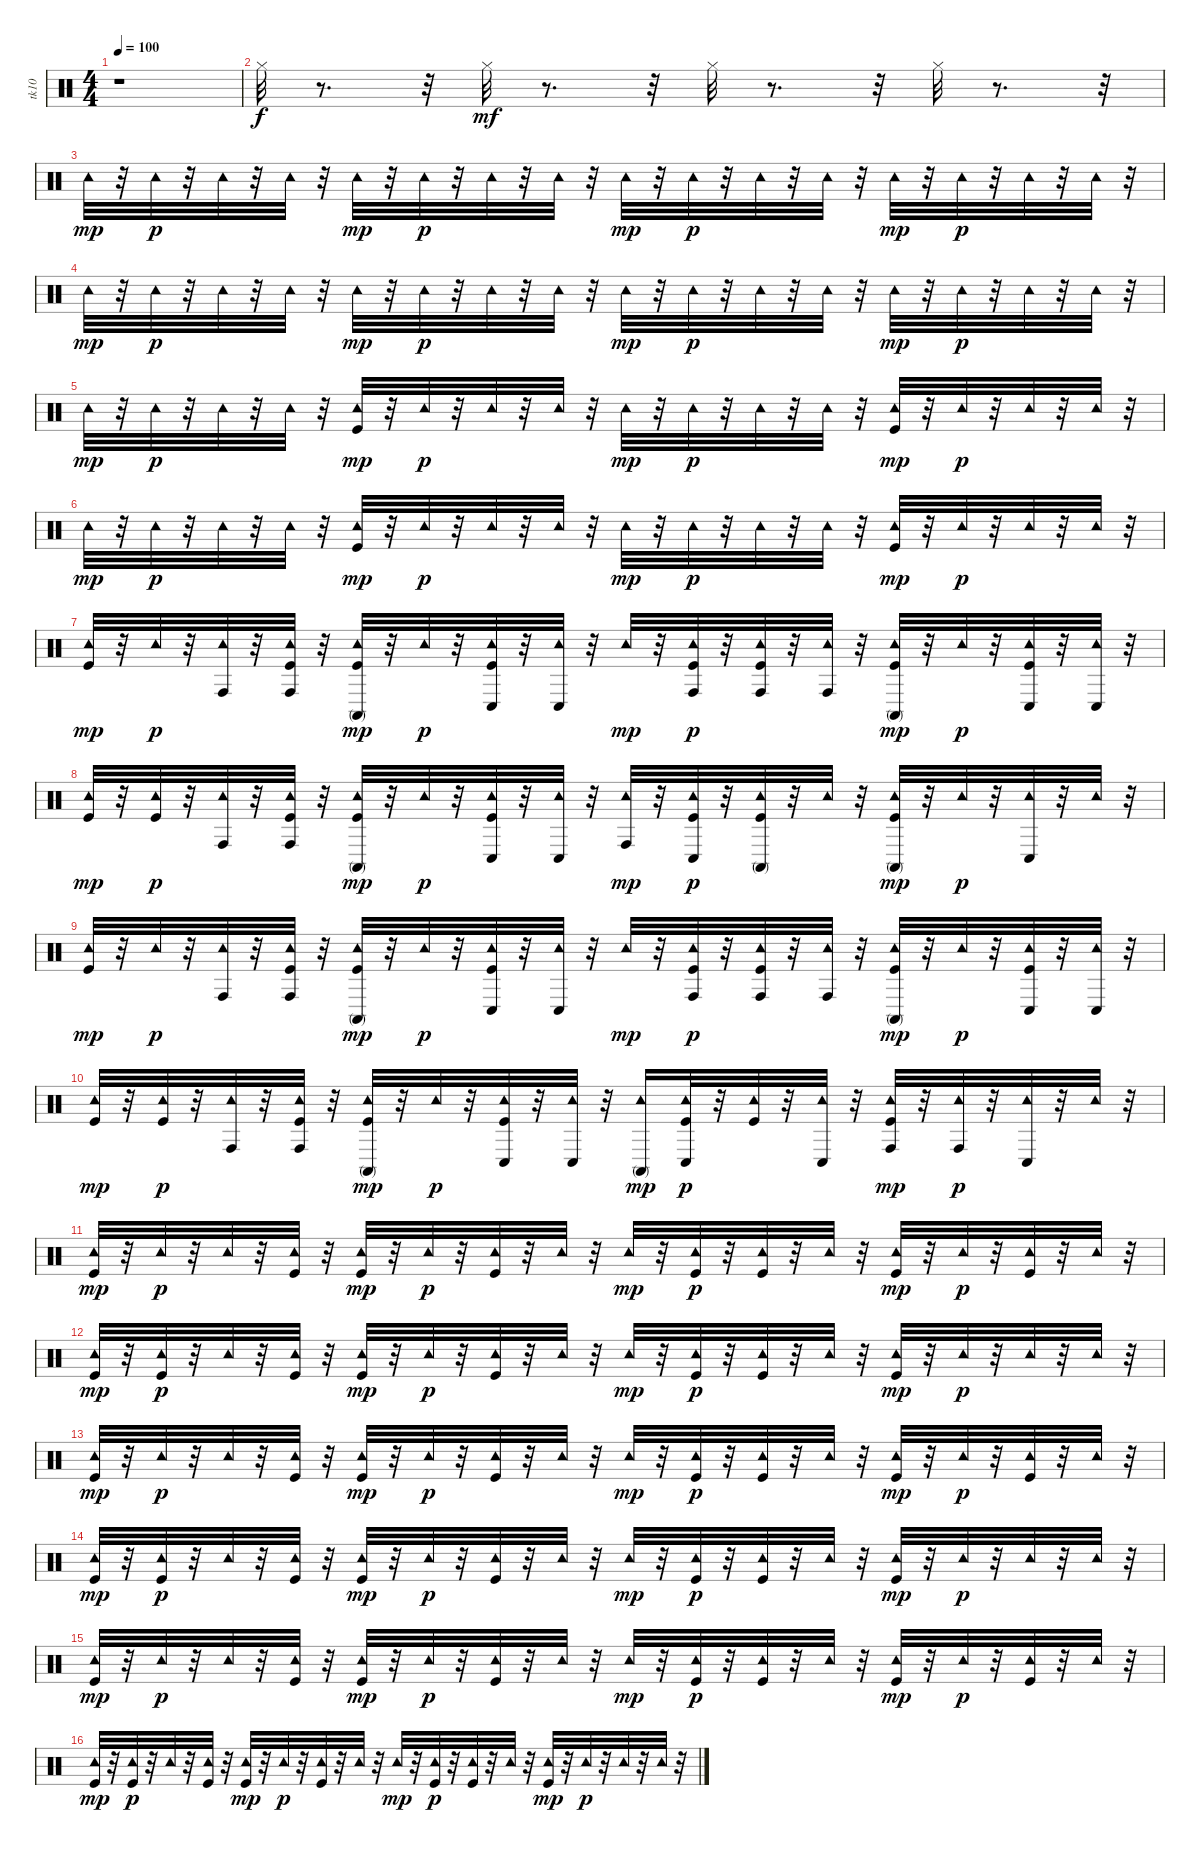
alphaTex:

\track ("tk10" "tk10") {instrument percussion}
\staff {score}
\articulation defaults
\ts (4 4)
\tempo 100
\clef neutral
\ks c
r.1{dy f} |
"Hi-Hat (closed)".32{volume 12} r.8{d} r.32 "Hi-Hat (closed)".32{dy mf} r.8{d} r.32 "Hi-Hat (closed)".32 r.8{d} r.32 "Hi-Hat (closed)".32 r.8{d} r.32 |
"Tambourine (hit)".32{dy mp} r.32 "Tambourine (hit)".32{dy p} r.32 "Tambourine (hit)".32 r.32 "Tambourine (hit)".32 r.32 "Tambourine (hit)".32{dy mp} r.32 "Tambourine (hit)".32{dy p} r.32 "Tambourine (hit)".32 r.32 "Tambourine (hit)".32 r.32 "Tambourine (hit)".32{dy mp} r.32 "Tambourine (hit)".32{dy p} r.32 "Tambourine (hit)".32 r.32 "Tambourine (hit)".32 r.32 "Tambourine (hit)".32{dy mp} r.32 "Tambourine (hit)".32{dy p} r.32 "Tambourine (hit)".32 r.32 "Tambourine (hit)".32 r.32 |
"Tambourine (hit)".32{dy mp} r.32 "Tambourine (hit)".32{dy p} r.32 "Tambourine (hit)".32 r.32 "Tambourine (hit)".32 r.32 "Tambourine (hit)".32{dy mp} r.32 "Tambourine (hit)".32{dy p} r.32 "Tambourine (hit)".32 r.32 "Tambourine (hit)".32 r.32 "Tambourine (hit)".32{dy mp} r.32 "Tambourine (hit)".32{dy p} r.32 "Tambourine (hit)".32 r.32 "Tambourine (hit)".32 r.32 "Tambourine (hit)".32{dy mp} r.32 "Tambourine (hit)".32{dy p} r.32 "Tambourine (hit)".32 r.32 "Tambourine (hit)".32 r.32 |
"Tambourine (hit)".32{dy mp} r.32 "Tambourine (hit)".32{dy p} r.32 "Tambourine (hit)".32 r.32 "Tambourine (hit)".32 r.32 ("Kick (hit)" "Tambourine (hit)").32{dy mp} r.32 "Tambourine (hit)".32{dy p} r.32 "Tambourine (hit)".32 r.32 "Tambourine (hit)".32 r.32 "Tambourine (hit)".32{dy mp} r.32 "Tambourine (hit)".32{dy p} r.32 "Tambourine (hit)".32 r.32 "Tambourine (hit)".32 r.32 ("Kick (hit)" "Tambourine (hit)").32{dy mp} r.32 "Tambourine (hit)".32{dy p} r.32 "Tambourine (hit)".32 r.32 "Tambourine (hit)".32 r.32 |
"Tambourine (hit)".32{dy mp} r.32 "Tambourine (hit)".32{dy p} r.32 "Tambourine (hit)".32 r.32 "Tambourine (hit)".32 r.32 ("Kick (hit)" "Tambourine (hit)").32{dy mp} r.32 "Tambourine (hit)".32{dy p} r.32 "Tambourine (hit)".32 r.32 "Tambourine (hit)".32 r.32 "Tambourine (hit)".32{dy mp} r.32 "Tambourine (hit)".32{dy p} r.32 "Tambourine (hit)".32 r.32 "Tambourine (hit)".32 r.32 ("Kick (hit)" "Tambourine (hit)").32{dy mp} r.32 "Tambourine (hit)".32{dy p} r.32 "Tambourine (hit)".32 r.32 "Tambourine (hit)".32 r.32 |
("Kick (hit)" "Tambourine (hit)").32{dy mp} r.32 "Tambourine (hit)".32{dy p} r.32 ("Conga high (hit)" "Tambourine (hit)").32 r.32 ("Kick (hit)" "Conga high (hit)" "Tambourine (hit)").32 r.32 ("Kick (hit)" "Conga high (mute)" "Tambourine (hit)").32{dy mp} r.32 "Tambourine (hit)".32{dy p} r.32 ("Kick (hit)" "Conga low (hit)" "Tambourine (hit)").32 r.32 ("Conga low (hit)" "Tambourine (hit)").32 r.32 "Tambourine (hit)".32{dy mp} r.32 ("Kick (hit)" "Conga high (hit)" "Tambourine (hit)").32{dy p} r.32 ("Kick (hit)" "Conga high (hit)" "Tambourine (hit)").32 r.32 ("Conga high (hit)" "Tambourine (hit)").32 r.32 ("Kick (hit)" "Conga high (mute)" "Tambourine (hit)").32{dy mp} r.32 "Tambourine (hit)".32{dy p} r.32 ("Kick (hit)" "Conga low (hit)" "Tambourine (hit)").32 r.32 ("Conga low (hit)" "Tambourine (hit)").32 r.32 |
("Kick (hit)" "Tambourine (hit)").32{dy mp} r.32 ("Kick (hit)" "Tambourine (hit)").32{dy p} r.32 ("Conga high (hit)" "Tambourine (hit)").32 r.32 ("Kick (hit)" "Conga high (hit)" "Tambourine (hit)").32 r.32 ("Kick (hit)" "Conga high (mute)" "Tambourine (hit)").32{dy mp} r.32 "Tambourine (hit)".32{dy p} r.32 ("Kick (hit)" "Conga low (hit)" "Tambourine (hit)").32 r.32 ("Conga low (hit)" "Tambourine (hit)").32 r.32 ("Conga high (hit)" "Tambourine (hit)").32{dy mp} r.32 ("Kick (hit)" "Conga low (hit)" "Tambourine (hit)").32{dy p} r.32 ("Kick (hit)" "Conga high (mute)" "Tambourine (hit)").32 r.32 "Tambourine (hit)".32 r.32 ("Kick (hit)" "Conga high (mute)" "Tambourine (hit)").32{dy mp} r.32 "Tambourine (hit)".32{dy p} r.32 ("Conga low (hit)" "Tambourine (hit)").32 r.32 "Tambourine (hit)".32 r.32 |
("Kick (hit)" "Tambourine (hit)").32{dy mp} r.32 "Tambourine (hit)".32{dy p} r.32 ("Conga high (hit)" "Tambourine (hit)").32 r.32 ("Kick (hit)" "Conga high (hit)" "Tambourine (hit)").32 r.32 ("Kick (hit)" "Conga high (mute)" "Tambourine (hit)").32{dy mp} r.32 "Tambourine (hit)".32{dy p} r.32 ("Kick (hit)" "Conga low (hit)" "Tambourine (hit)").32 r.32 ("Conga low (hit)" "Tambourine (hit)").32 r.32 "Tambourine (hit)".32{dy mp} r.32 ("Kick (hit)" "Conga high (hit)" "Tambourine (hit)").32{dy p} r.32 ("Kick (hit)" "Conga high (hit)" "Tambourine (hit)").32 r.32 ("Conga high (hit)" "Tambourine (hit)").32 r.32 ("Kick (hit)" "Conga high (mute)" "Tambourine (hit)").32{dy mp} r.32 "Tambourine (hit)".32{dy p} r.32 ("Kick (hit)" "Conga low (hit)" "Tambourine (hit)").32 r.32 ("Conga low (hit)" "Tambourine (hit)").32 r.32 |
("Kick (hit)" "Tambourine (hit)").32{dy mp} r.32 ("Kick (hit)" "Tambourine (hit)").32{dy p} r.32 ("Conga high (hit)" "Tambourine (hit)").32 r.32 ("Kick (hit)" "Conga high (hit)" "Tambourine (hit)").32 r.32 ("Kick (hit)" "Conga high (mute)" "Tambourine (hit)").32{dy mp} r.32 "Tambourine (hit)".32{dy p} r.32 ("Kick (hit)" "Conga low (hit)" "Tambourine (hit)").32 r.32 ("Conga low (hit)" "Tambourine (hit)").32 r.32 ("Conga high (mute)" "Tambourine (hit)").16{dy mp} ("Kick (hit)" "Conga low (hit)" "Tambourine (hit)").32{dy p} r.32 ("Kick (hit)" "Tambourine (hit)").32 r.32 ("Conga low (hit)" "Tambourine (hit)").32 r.32 ("Kick (hit)" "Conga high (hit)" "Tambourine (hit)").32{dy mp} r.32 ("Conga high (hit)" "Tambourine (hit)").32{dy p} r.32 ("Conga low (hit)" "Tambourine (hit)").32 r.32 "Tambourine (hit)".32 r.32 |
("Kick (hit)" "Tambourine (hit)").32{dy mp} r.32 "Tambourine (hit)".32{dy p} r.32 "Tambourine (hit)".32 r.32 ("Kick (hit)" "Tambourine (hit)").32 r.32 ("Kick (hit)" "Tambourine (hit)").32{dy mp} r.32 "Tambourine (hit)".32{dy p} r.32 ("Kick (hit)" "Tambourine (hit)").32 r.32 "Tambourine (hit)".32 r.32 "Tambourine (hit)".32{dy mp} r.32 ("Kick (hit)" "Tambourine (hit)").32{dy p} r.32 ("Kick (hit)" "Tambourine (hit)").32 r.32 "Tambourine (hit)".32 r.32 ("Kick (hit)" "Tambourine (hit)").32{dy mp} r.32 "Tambourine (hit)".32{dy p} r.32 ("Kick (hit)" "Tambourine (hit)").32 r.32 "Tambourine (hit)".32 r.32 |
("Kick (hit)" "Tambourine (hit)").32{dy mp} r.32 ("Kick (hit)" "Tambourine (hit)").32{dy p} r.32 "Tambourine (hit)".32 r.32 ("Kick (hit)" "Tambourine (hit)").32 r.32 ("Kick (hit)" "Tambourine (hit)").32{dy mp} r.32 "Tambourine (hit)".32{dy p} r.32 ("Kick (hit)" "Tambourine (hit)").32 r.32 "Tambourine (hit)".32 r.32 "Tambourine (hit)".32{dy mp} r.32 ("Kick (hit)" "Tambourine (hit)").32{dy p} r.32 ("Kick (hit)" "Tambourine (hit)").32 r.32 "Tambourine (hit)".32 r.32 ("Kick (hit)" "Tambourine (hit)").32{dy mp} r.32 "Tambourine (hit)".32{dy p} r.32 "Tambourine (hit)".32 r.32 "Tambourine (hit)".32 r.32 |
("Kick (hit)" "Tambourine (hit)").32{dy mp} r.32 "Tambourine (hit)".32{dy p} r.32 "Tambourine (hit)".32 r.32 ("Kick (hit)" "Tambourine (hit)").32 r.32 ("Kick (hit)" "Tambourine (hit)").32{dy mp} r.32 "Tambourine (hit)".32{dy p} r.32 ("Kick (hit)" "Tambourine (hit)").32 r.32 "Tambourine (hit)".32 r.32 "Tambourine (hit)".32{dy mp} r.32 ("Kick (hit)" "Tambourine (hit)").32{dy p} r.32 ("Kick (hit)" "Tambourine (hit)").32 r.32 "Tambourine (hit)".32 r.32 ("Kick (hit)" "Tambourine (hit)").32{dy mp} r.32 "Tambourine (hit)".32{dy p} r.32 ("Kick (hit)" "Tambourine (hit)").32 r.32 "Tambourine (hit)".32 r.32 |
("Kick (hit)" "Tambourine (hit)").32{dy mp} r.32 ("Kick (hit)" "Tambourine (hit)").32{dy p} r.32 "Tambourine (hit)".32 r.32 ("Kick (hit)" "Tambourine (hit)").32 r.32 ("Kick (hit)" "Tambourine (hit)").32{dy mp} r.32 "Tambourine (hit)".32{dy p} r.32 ("Kick (hit)" "Tambourine (hit)").32 r.32 "Tambourine (hit)".32 r.32 "Tambourine (hit)".32{dy mp} r.32 ("Kick (hit)" "Tambourine (hit)").32{dy p} r.32 ("Kick (hit)" "Tambourine (hit)").32 r.32 "Tambourine (hit)".32 r.32 ("Kick (hit)" "Tambourine (hit)").32{dy mp} r.32 "Tambourine (hit)".32{dy p} r.32 "Tambourine (hit)".32 r.32 "Tambourine (hit)".32 r.32 |
("Kick (hit)" "Tambourine (hit)").32{dy mp} r.32 "Tambourine (hit)".32{dy p} r.32 "Tambourine (hit)".32 r.32 ("Kick (hit)" "Tambourine (hit)").32 r.32 ("Kick (hit)" "Tambourine (hit)").32{dy mp} r.32 "Tambourine (hit)".32{dy p} r.32 ("Kick (hit)" "Tambourine (hit)").32 r.32 "Tambourine (hit)".32 r.32 "Tambourine (hit)".32{dy mp} r.32 ("Kick (hit)" "Tambourine (hit)").32{dy p} r.32 ("Kick (hit)" "Tambourine (hit)").32 r.32 "Tambourine (hit)".32 r.32 ("Kick (hit)" "Tambourine (hit)").32{dy mp} r.32 "Tambourine (hit)".32{dy p} r.32 ("Kick (hit)" "Tambourine (hit)").32 r.32 "Tambourine (hit)".32 r.32 |
("Kick (hit)" "Tambourine (hit)").32{dy mp} r.32 ("Kick (hit)" "Tambourine (hit)").32{dy p} r.32 "Tambourine (hit)".32 r.32 ("Kick (hit)" "Tambourine (hit)").32 r.32 ("Kick (hit)" "Tambourine (hit)").32{dy mp} r.32 "Tambourine (hit)".32{dy p} r.32 ("Kick (hit)" "Tambourine (hit)").32 r.32 "Tambourine (hit)".32 r.32 "Tambourine (hit)".32{dy mp} r.32 ("Kick (hit)" "Tambourine (hit)").32{dy p} r.32 ("Kick (hit)" "Tambourine (hit)").32 r.32 "Tambourine (hit)".32 r.32 ("Kick (hit)" "Tambourine (hit)").32{dy mp} r.32 "Tambourine (hit)".32{dy p} r.32 "Tambourine (hit)".32 r.32 "Tambourine (hit)".32 r.32
